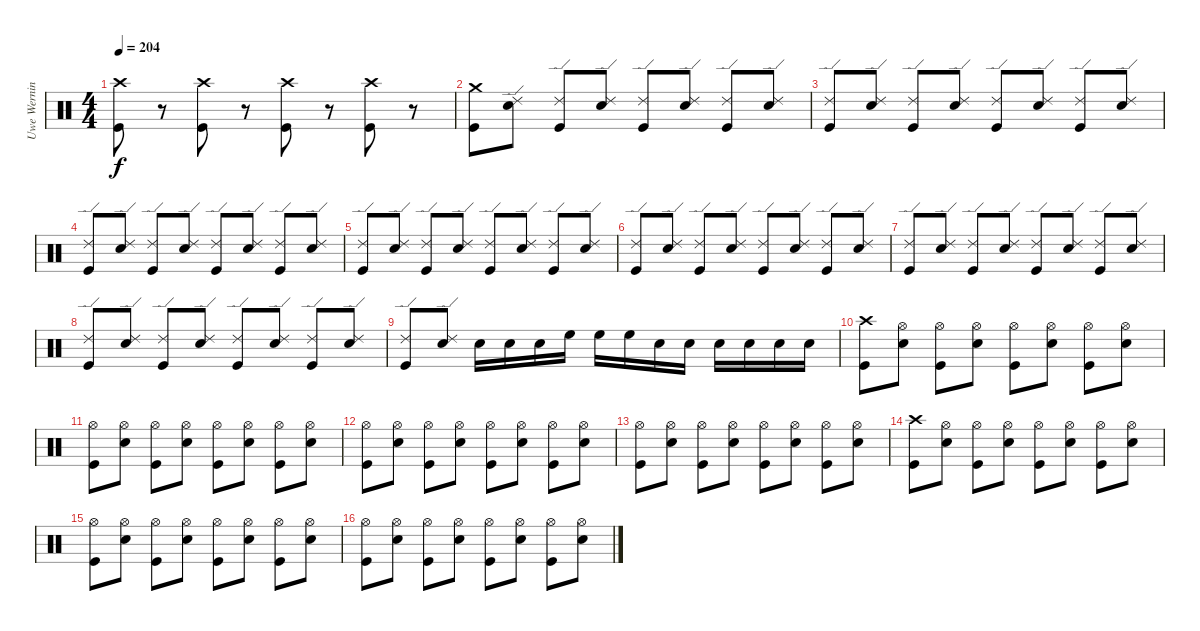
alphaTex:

\track ("Uwe Werning" "Uwe Wernin") {instrument percussion}
\staff {score}
\articulation defaults
\ts (4 4)
\tempo 204
\clef neutral
\ks c
("Crash high (hit)" "Kick (hit)").8{dy f} r.8 ("Crash high (hit)" "Kick (hit)").8 r.8 ("Crash high (hit)" "Kick (hit)").8 r.8 ("Crash high (hit)" "Kick (hit)").8 r.8 |
("Crash medium (hit)" "Kick (hit)").8 ("Ride (edge) 2" "Snare (hit) 2").8 ("Ride (edge) 2" "Kick (hit)").8 ("Ride (edge) 2" "Snare (hit) 2").8 ("Ride (edge) 2" "Kick (hit)").8 ("Ride (edge) 2" "Snare (hit) 2").8 ("Ride (edge) 2" "Kick (hit)").8 ("Ride (edge) 2" "Snare (hit) 2").8 |
("Ride (edge) 2" "Kick (hit)").8 ("Ride (edge) 2" "Snare (hit) 2").8 ("Ride (edge) 2" "Kick (hit)").8 ("Ride (edge) 2" "Snare (hit) 2").8 ("Ride (edge) 2" "Kick (hit)").8 ("Ride (edge) 2" "Snare (hit) 2").8 ("Ride (edge) 2" "Kick (hit)").8 ("Ride (edge) 2" "Snare (hit) 2").8 |
("Ride (edge) 2" "Kick (hit)").8 ("Ride (edge) 2" "Snare (hit) 2").8 ("Ride (edge) 2" "Kick (hit)").8 ("Ride (edge) 2" "Snare (hit) 2").8 ("Ride (edge) 2" "Kick (hit)").8 ("Ride (edge) 2" "Snare (hit) 2").8 ("Ride (edge) 2" "Kick (hit)").8 ("Ride (edge) 2" "Snare (hit) 2").8 |
("Ride (edge) 2" "Kick (hit)").8 ("Ride (edge) 2" "Snare (hit) 2").8 ("Ride (edge) 2" "Kick (hit)").8 ("Ride (edge) 2" "Snare (hit) 2").8 ("Ride (edge) 2" "Kick (hit)").8 ("Ride (edge) 2" "Snare (hit) 2").8 ("Ride (edge) 2" "Kick (hit)").8 ("Ride (edge) 2" "Snare (hit) 2").8 |
("Ride (edge) 2" "Kick (hit)").8 ("Ride (edge) 2" "Snare (hit) 2").8 ("Ride (edge) 2" "Kick (hit)").8 ("Ride (edge) 2" "Snare (hit) 2").8 ("Ride (edge) 2" "Kick (hit)").8 ("Ride (edge) 2" "Snare (hit) 2").8 ("Ride (edge) 2" "Kick (hit)").8 ("Ride (edge) 2" "Snare (hit) 2").8 |
("Ride (edge) 2" "Kick (hit)").8 ("Ride (edge) 2" "Snare (hit) 2").8 ("Ride (edge) 2" "Kick (hit)").8 ("Ride (edge) 2" "Snare (hit) 2").8 ("Ride (edge) 2" "Kick (hit)").8 ("Ride (edge) 2" "Snare (hit) 2").8 ("Ride (edge) 2" "Kick (hit)").8 ("Ride (edge) 2" "Snare (hit) 2").8 |
("Ride (edge) 2" "Kick (hit)").8 ("Ride (edge) 2" "Snare (hit) 2").8 ("Ride (edge) 2" "Kick (hit)").8 ("Ride (edge) 2" "Snare (hit) 2").8 ("Ride (edge) 2" "Kick (hit)").8 ("Ride (edge) 2" "Snare (hit) 2").8 ("Ride (edge) 2" "Kick (hit)").8 ("Ride (edge) 2" "Snare (hit) 2").8 |
("Ride (edge) 2" "Kick (hit)").8 ("Ride (edge) 2" "Snare (hit) 2").8 "Snare (hit) 2".16 "Snare (hit) 2".16 "Snare (hit) 2".16 "High Floor Tom (hit)".16 "High Floor Tom (hit)".16 "High Floor Tom (hit)".16 "Snare (hit) 2".16 "Snare (hit) 2".16 "Snare (hit) 2".16 "Snare (hit) 2".16 "Snare (hit) 2".16 "Snare (hit) 2".16 |
("Crash high (hit)" "Kick (hit)").8 ("Hi-Hat (open)" "Snare (hit) 2").8 ("Hi-Hat (open)" "Kick (hit)").8 ("Hi-Hat (open)" "Snare (hit) 2").8 ("Hi-Hat (open)" "Kick (hit)").8 ("Hi-Hat (open)" "Snare (hit) 2").8 ("Hi-Hat (open)" "Kick (hit)").8 ("Hi-Hat (open)" "Snare (hit) 2").8 |
("Hi-Hat (open)" "Kick (hit)").8 ("Hi-Hat (open)" "Snare (hit) 2").8 ("Hi-Hat (open)" "Kick (hit)").8 ("Hi-Hat (open)" "Snare (hit) 2").8 ("Hi-Hat (open)" "Kick (hit)").8 ("Hi-Hat (open)" "Snare (hit) 2").8 ("Hi-Hat (open)" "Kick (hit)").8 ("Hi-Hat (open)" "Snare (hit) 2").8 |
("Hi-Hat (open)" "Kick (hit)").8 ("Hi-Hat (open)" "Snare (hit) 2").8 ("Hi-Hat (open)" "Kick (hit)").8 ("Hi-Hat (open)" "Snare (hit) 2").8 ("Hi-Hat (open)" "Kick (hit)").8 ("Hi-Hat (open)" "Snare (hit) 2").8 ("Hi-Hat (open)" "Kick (hit)").8 ("Hi-Hat (open)" "Snare (hit) 2").8 |
("Hi-Hat (open)" "Kick (hit)").8 ("Hi-Hat (open)" "Snare (hit) 2").8 ("Hi-Hat (open)" "Kick (hit)").8 ("Hi-Hat (open)" "Snare (hit) 2").8 ("Hi-Hat (open)" "Kick (hit)").8 ("Hi-Hat (open)" "Snare (hit) 2").8 ("Hi-Hat (open)" "Kick (hit)").8 ("Hi-Hat (open)" "Snare (hit) 2").8 |
("Crash high (hit)" "Kick (hit)").8 ("Hi-Hat (open)" "Snare (hit) 2").8 ("Hi-Hat (open)" "Kick (hit)").8 ("Hi-Hat (open)" "Snare (hit) 2").8 ("Hi-Hat (open)" "Kick (hit)").8 ("Hi-Hat (open)" "Snare (hit) 2").8 ("Hi-Hat (open)" "Kick (hit)").8 ("Hi-Hat (open)" "Snare (hit) 2").8 |
("Hi-Hat (open)" "Kick (hit)").8 ("Hi-Hat (open)" "Snare (hit) 2").8 ("Hi-Hat (open)" "Kick (hit)").8 ("Hi-Hat (open)" "Snare (hit) 2").8 ("Hi-Hat (open)" "Kick (hit)").8 ("Hi-Hat (open)" "Snare (hit) 2").8 ("Hi-Hat (open)" "Kick (hit)").8 ("Hi-Hat (open)" "Snare (hit) 2").8 |
("Hi-Hat (open)" "Kick (hit)").8 ("Hi-Hat (open)" "Snare (hit) 2").8 ("Hi-Hat (open)" "Kick (hit)").8 ("Hi-Hat (open)" "Snare (hit) 2").8 ("Hi-Hat (open)" "Kick (hit)").8 ("Hi-Hat (open)" "Snare (hit) 2").8 ("Hi-Hat (open)" "Kick (hit)").8 ("Hi-Hat (open)" "Snare (hit) 2").8
